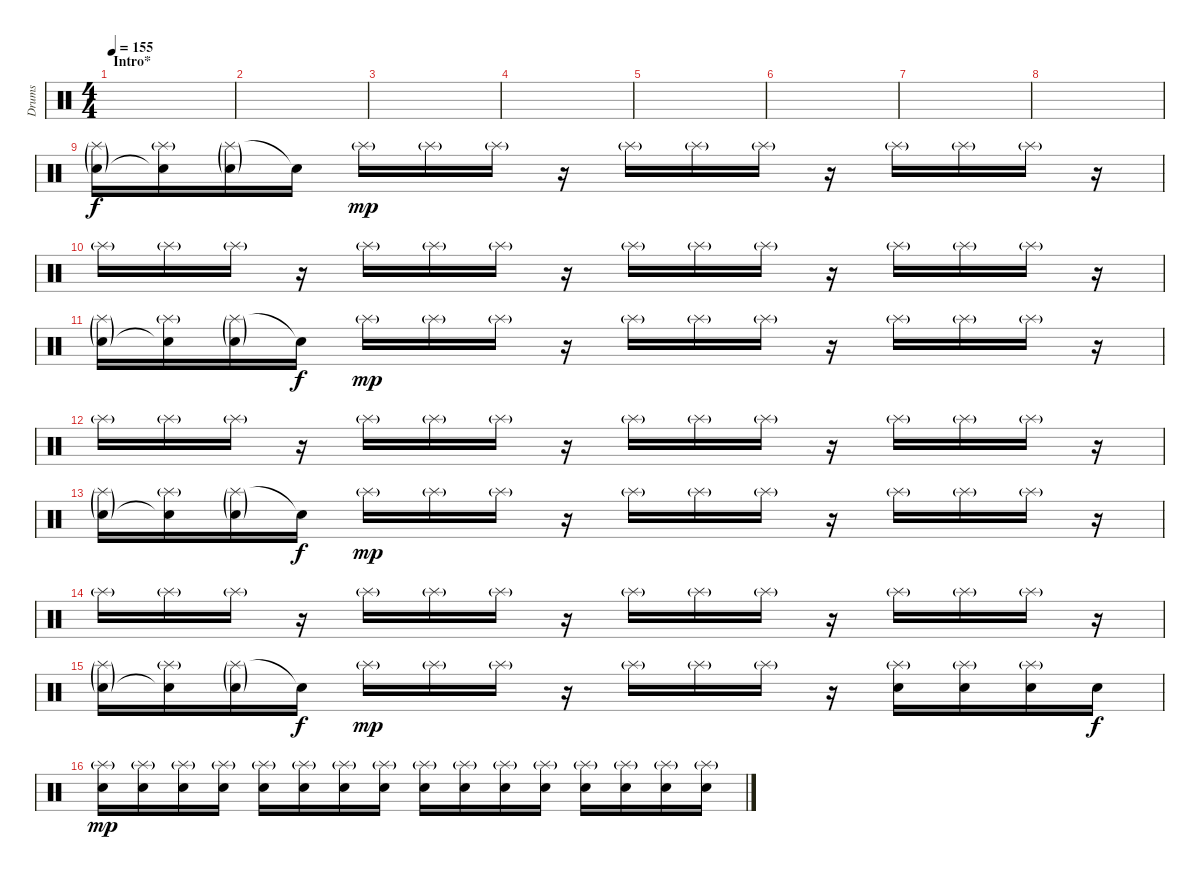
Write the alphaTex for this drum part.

\track ("Drums" "Drums") {instrument percussion}
\staff {score}
\articulation defaults
\ts (4 4)
\section ("" "Intro*")
\tempo 155
\clef neutral
\ks c
|
|
|
|
|
|
|
|
("Splash (hit)"{g} "Electric Snare (hit)"{g}).16 ("Splash (hit)"{g} "Snare (hit)"{t}).16 ("Splash (hit)"{g} "Electric Snare (hit)"{g}).16 "Snare (hit)"{t}.16{dy f} "Splash (hit)"{g}.16{dy mp} "Splash (hit)"{g}.16 "Splash (hit)"{g}.16 r.16 "Splash (hit)"{g}.16 "Splash (hit)"{g}.16 "Splash (hit)"{g}.16 r.16 "Splash (hit)"{g}.16 "Splash (hit)"{g}.16 "Splash (hit)"{g}.16 r.16 |
"Splash (hit)"{g}.16 "Splash (hit)"{g}.16 "Splash (hit)"{g}.16 r.16 "Splash (hit)"{g}.16 "Splash (hit)"{g}.16 "Splash (hit)"{g}.16 r.16 "Splash (hit)"{g}.16 "Splash (hit)"{g}.16 "Splash (hit)"{g}.16 r.16 "Splash (hit)"{g}.16 "Splash (hit)"{g}.16 "Splash (hit)"{g}.16 r.16 |
("Splash (hit)"{g} "Electric Snare (hit)"{g}).16 ("Splash (hit)"{g} "Snare (hit)"{t}).16 ("Splash (hit)"{g} "Electric Snare (hit)"{g}).16 "Snare (hit)"{t}.16{dy f} "Splash (hit)"{g}.16{dy mp} "Splash (hit)"{g}.16 "Splash (hit)"{g}.16 r.16 "Splash (hit)"{g}.16 "Splash (hit)"{g}.16 "Splash (hit)"{g}.16 r.16 "Splash (hit)"{g}.16 "Splash (hit)"{g}.16 "Splash (hit)"{g}.16 r.16 |
"Splash (hit)"{g}.16 "Splash (hit)"{g}.16 "Splash (hit)"{g}.16 r.16 "Splash (hit)"{g}.16 "Splash (hit)"{g}.16 "Splash (hit)"{g}.16 r.16 "Splash (hit)"{g}.16 "Splash (hit)"{g}.16 "Splash (hit)"{g}.16 r.16 "Splash (hit)"{g}.16 "Splash (hit)"{g}.16 "Splash (hit)"{g}.16 r.16 |
("Splash (hit)"{g} "Electric Snare (hit)"{g}).16 ("Splash (hit)"{g} "Snare (hit)"{t}).16 ("Splash (hit)"{g} "Electric Snare (hit)"{g}).16 "Snare (hit)"{t}.16{dy f} "Splash (hit)"{g}.16{dy mp} "Splash (hit)"{g}.16 "Splash (hit)"{g}.16 r.16 "Splash (hit)"{g}.16 "Splash (hit)"{g}.16 "Splash (hit)"{g}.16 r.16 "Splash (hit)"{g}.16 "Splash (hit)"{g}.16 "Splash (hit)"{g}.16 r.16 |
"Splash (hit)"{g}.16 "Splash (hit)"{g}.16 "Splash (hit)"{g}.16 r.16 "Splash (hit)"{g}.16 "Splash (hit)"{g}.16 "Splash (hit)"{g}.16 r.16 "Splash (hit)"{g}.16 "Splash (hit)"{g}.16 "Splash (hit)"{g}.16 r.16 "Splash (hit)"{g}.16 "Splash (hit)"{g}.16 "Splash (hit)"{g}.16 r.16 |
("Splash (hit)"{g} "Electric Snare (hit)"{g}).16 ("Splash (hit)"{g} "Snare (hit)"{t}).16 ("Splash (hit)"{g} "Electric Snare (hit)"{g}).16 "Snare (hit)"{t}.16{dy f} "Splash (hit)"{g}.16{dy mp} "Splash (hit)"{g}.16 "Splash (hit)"{g}.16 r.16 "Splash (hit)"{g}.16 "Splash (hit)"{g}.16 "Splash (hit)"{g}.16 r.16 ("Splash (hit)"{g} "Electric Snare (hit)").16 ("Splash (hit)"{g} "Electric Snare (hit)").16 ("Splash (hit)"{g} "Electric Snare (hit)").16 "Electric Snare (hit)".16{dy f} |
("Splash (hit)"{g} "Electric Snare (hit)").16{dy mp} ("Splash (hit)"{g} "Electric Snare (hit)").16 ("Splash (hit)"{g} "Electric Snare (hit)").16 ("Splash (hit)"{g} "Electric Snare (hit)").16 ("Splash (hit)"{g} "Electric Snare (hit)").16 ("Splash (hit)"{g} "Electric Snare (hit)").16 ("Splash (hit)"{g} "Electric Snare (hit)").16 ("Splash (hit)"{g} "Electric Snare (hit)").16 ("Splash (hit)"{g} "Electric Snare (hit)").16 ("Splash (hit)"{g} "Electric Snare (hit)").16 ("Splash (hit)"{g} "Electric Snare (hit)").16 ("Splash (hit)"{g} "Electric Snare (hit)").16 ("Splash (hit)"{g} "Electric Snare (hit)").16 ("Splash (hit)"{g} "Electric Snare (hit)").16 ("Splash (hit)"{g} "Electric Snare (hit)").16 ("Splash (hit)"{g} "Electric Snare (hit)").16
